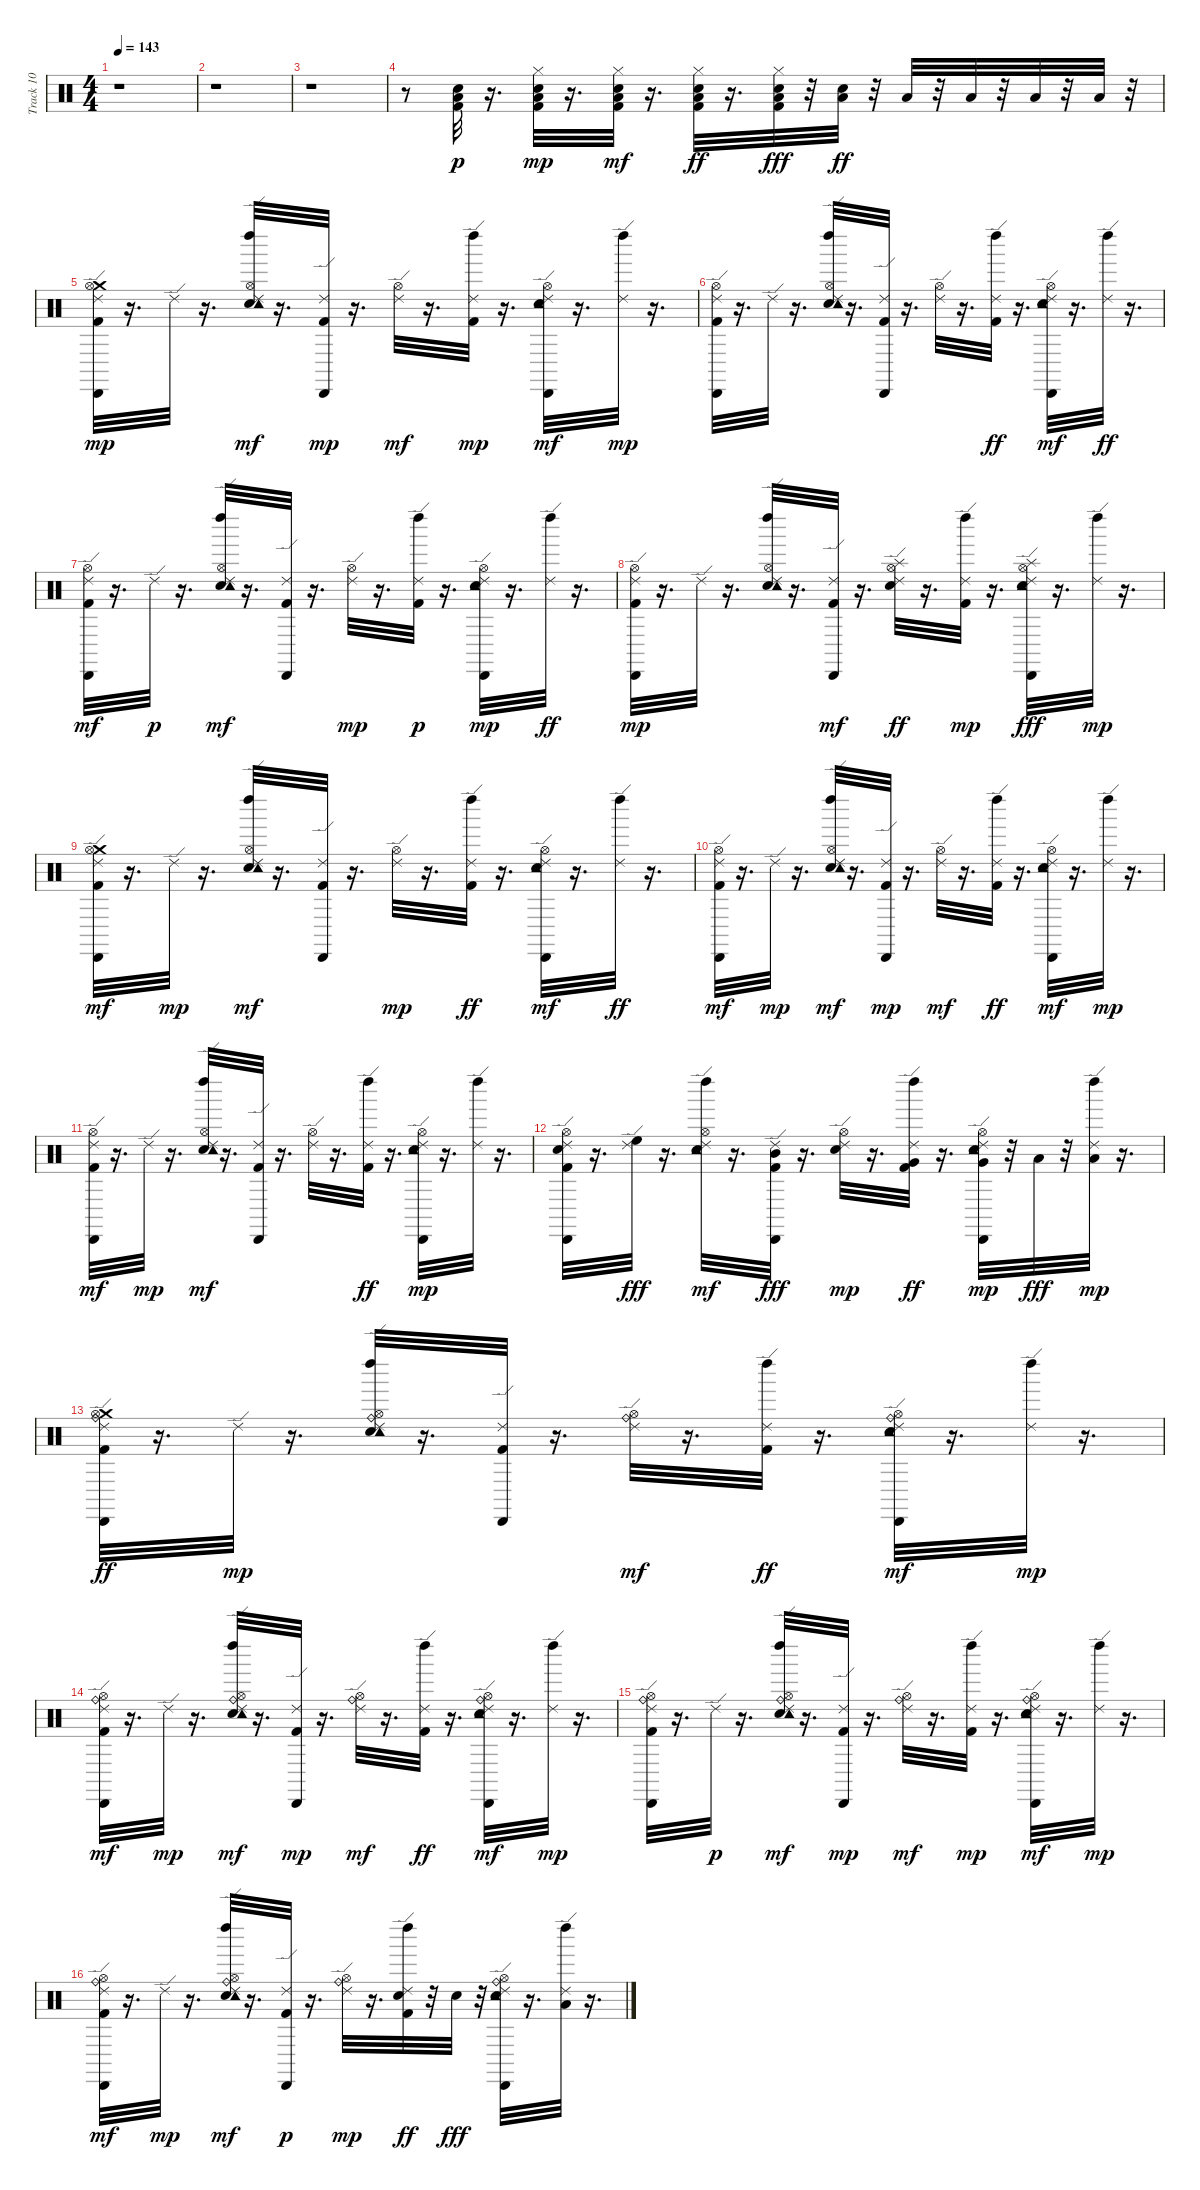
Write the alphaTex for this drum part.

\track ("Track 10" "Track 10") {instrument percussion}
\staff {score}
\articulation defaults
\ts (4 4)
\tempo 143
\clef neutral
\ks c
r.1{dy p} |
r.1 |
r.1 |
r.8 ("Snare (hit) 2" "Kick (hit) 2" "Low Floor Tom (hit)").32{balance 8} r.16{d} ("Snare (hit) 2" "Kick (hit) 2" "Low Floor Tom (hit)" "Hi-Hat (closed)").32{dy mp} r.16{d} ("Snare (hit) 2" "Kick (hit) 2" "Low Floor Tom (hit)" "Hi-Hat (closed)").32{dy mf} r.16{d} ("Snare (hit) 2" "Kick (hit) 2" "Low Floor Tom (hit)" "Hi-Hat (closed)").32{dy ff} r.16{d} ("Low Tom (hit)" "Snare (hit) 2" "Kick (hit) 2" "Hi-Hat (closed)").32{dy fff} r.32 ("Snare (hit) 2" "Low Tom (hit)").32{dy ff} r.32 "Low Tom (hit)".32 r.32 "Low Tom (hit)".32 r.32 "Low Floor Tom (hit)".32 r.32 "Low Floor Tom (hit)".32 r.32 |
("Kick (hit) 2" "Crash medium (hit)" "Ride (edge) 2" "Cabasa (hit)" "Hi-Hat (open)").32{dy mp} r.16{d} "Ride (edge) 2".32 r.16{d} ("Snare (hit) 2" "Ride (edge) 2" "Tambourine (hit)" "Left Maraca (hit)" "Hi-Hat (open)").32{dy mf} r.16{d} ("Kick (hit) 2" "Ride (edge) 2" "Cabasa (hit)").32{dy mp} r.16{d} ("Ride (edge) 2" "Hi-Hat (open)").32{dy mf} r.16{d} ("Kick (hit) 2" "Ride (edge) 2" "Left Maraca (hit)").32{dy mp} r.16{d} ("Snare (hit) 2" "Ride (edge) 2" "Tambourine (hit)" "Cabasa (hit)" "Hi-Hat (open)").32{dy mf} r.16{d} ("Ride (edge) 2" "Left Maraca (hit)").32{dy mp} r.16{d} |
("Kick (hit) 2" "Ride (edge) 2" "Cabasa (hit)" "Hi-Hat (open)").32 r.16{d} "Ride (edge) 2".32 r.16{d} ("Snare (hit) 2" "Ride (edge) 2" "Tambourine (hit)" "Left Maraca (hit)" "Hi-Hat (open)").32 r.16{d} ("Kick (hit) 2" "Ride (edge) 2" "Cabasa (hit)").32 r.16{d} ("Ride (edge) 2" "Hi-Hat (open)").32 r.16{d} ("Kick (hit) 2" "Ride (edge) 2" "Left Maraca (hit)").32{dy ff} r.16{d} ("Snare (hit) 2" "Ride (edge) 2" "Tambourine (hit)" "Cabasa (hit)" "Hi-Hat (open)").32{dy mf} r.16{d} ("Ride (edge) 2" "Left Maraca (hit)").32{dy ff} r.16{d} |
("Kick (hit) 2" "Ride (edge) 2" "Cabasa (hit)" "Hi-Hat (open)").32{dy mf} r.16{d} "Ride (edge) 2".32{dy p} r.16{d} ("Snare (hit) 2" "Ride (edge) 2" "Tambourine (hit)" "Left Maraca (hit)" "Hi-Hat (open)").32{dy mf} r.16{d} ("Kick (hit) 2" "Ride (edge) 2" "Cabasa (hit)").32 r.16{d} ("Ride (edge) 2" "Hi-Hat (open)").32{dy mp} r.16{d} ("Kick (hit) 2" "Ride (edge) 2" "Left Maraca (hit)").32{dy p} r.16{d} ("Snare (hit) 2" "Ride (edge) 2" "Tambourine (hit)" "Cabasa (hit)" "Hi-Hat (open)").32{dy mp} r.16{d} ("Ride (edge) 2" "Left Maraca (hit)").32{dy ff} r.16{d} |
("Kick (hit) 2" "Ride (edge) 2" "Cabasa (hit)" "Hi-Hat (open)").32{dy mp} r.16{d} "Ride (edge) 2".32 r.16{d} ("Snare (hit) 2" "Ride (edge) 2" "Tambourine (hit)" "Left Maraca (hit)" "Hi-Hat (open)").32 r.16{d} ("Kick (hit) 2" "Ride (edge) 2" "Cabasa (hit)").32{dy mf} r.16{d} ("Snare (hit) 2" "Ride (edge) 2" "Hi-Hat (open)" "Splash (hit)").32{dy ff} r.16{d} ("Kick (hit) 2" "Ride (edge) 2" "Left Maraca (hit)").32{dy mp} r.16{d} ("Snare (hit) 2" "Ride (edge) 2" "Tambourine (hit)" "Cabasa (hit)" "Hi-Hat (open)" "Splash (hit)").32{dy fff} r.16{d} ("Ride (edge) 2" "Left Maraca (hit)").32{dy mp} r.16{d} |
("Kick (hit) 2" "Ride (edge) 2" "Crash medium (hit)" "Cabasa (hit)" "Hi-Hat (open)").32{dy mf} r.16{d} "Ride (edge) 2".32{dy mp} r.16{d} ("Snare (hit) 2" "Ride (edge) 2" "Tambourine (hit)" "Left Maraca (hit)" "Hi-Hat (open)").32{dy mf} r.16{d} ("Kick (hit) 2" "Ride (edge) 2" "Cabasa (hit)").32 r.16{d} ("Ride (edge) 2" "Hi-Hat (open)").32{dy mp} r.16{d} ("Kick (hit) 2" "Ride (edge) 2" "Left Maraca (hit)").32{dy ff} r.16{d} ("Snare (hit) 2" "Ride (edge) 2" "Tambourine (hit)" "Cabasa (hit)" "Hi-Hat (open)").32{dy mf} r.16{d} ("Ride (edge) 2" "Left Maraca (hit)").32{dy ff} r.16{d} |
("Kick (hit) 2" "Ride (edge) 2" "Cabasa (hit)" "Hi-Hat (open)").32{dy mf} r.16{d} "Ride (edge) 2".32{dy mp} r.16{d} ("Snare (hit) 2" "Ride (edge) 2" "Tambourine (hit)" "Left Maraca (hit)" "Hi-Hat (open)").32{dy mf} r.16{d} ("Kick (hit) 2" "Ride (edge) 2" "Cabasa (hit)").32{dy mp} r.16{d} ("Ride (edge) 2" "Hi-Hat (open)").32{dy mf} r.16{d} ("Kick (hit) 2" "Ride (edge) 2" "Left Maraca (hit)").32{dy ff} r.16{d} ("Snare (hit) 2" "Ride (edge) 2" "Tambourine (hit)" "Cabasa (hit)" "Hi-Hat (open)").32{dy mf} r.16{d} ("Ride (edge) 2" "Left Maraca (hit)").32{dy mp} r.16{d} |
("Kick (hit) 2" "Ride (edge) 2" "Cabasa (hit)" "Hi-Hat (open)").32{dy mf} r.16{d} "Ride (edge) 2".32{dy mp} r.16{d} ("Snare (hit) 2" "Ride (edge) 2" "Tambourine (hit)" "Left Maraca (hit)" "Hi-Hat (open)").32{dy mf} r.16{d} ("Kick (hit) 2" "Ride (edge) 2" "Cabasa (hit)").32 r.16{d} ("Ride (edge) 2" "Hi-Hat (open)").32 r.16{d} ("Kick (hit) 2" "Ride (edge) 2" "Left Maraca (hit)").32{dy ff} r.16{d} ("Snare (hit) 2" "Ride (edge) 2" "Tambourine (hit)" "Cabasa (hit)" "Hi-Hat (open)").32{dy mp} r.16{d} ("Ride (edge) 2" "Left Maraca (hit)").32 r.16{d} |
("Kick (hit) 2" "Ride (edge) 2" "Snare (hit) 2" "Cabasa (hit)" "Hi-Hat (open)").32 r.16{d} ("Ride (edge) 2" "High Floor Tom (hit)").32{dy fff} r.16{d} ("Snare (hit) 2" "Ride (edge) 2" "Tambourine (hit)" "Left Maraca (hit)" "Hi-Hat (open)").32{dy mf} r.16{d} ("Kick (hit) 2" "Ride (edge) 2" "Cabasa (hit)" "Mid Tom (hit)").32{dy fff} r.16{d} ("Snare (hit) 2" "Ride (edge) 2" "Hi-Hat (open)").32{dy mp} r.16{d} ("Kick (hit) 2" "Ride (edge) 2" "Left Maraca (hit)" "Very Low Tom (hit)").32{dy ff} r.16{d} ("Snare (hit) 2" "Ride (edge) 2" "Tambourine (hit)" "Cabasa (hit)" "Very Low Tom (hit)" "Hi-Hat (open)").32{dy mp} r.32 "Low Floor Tom (hit)".32{dy fff} r.32 ("Ride (edge) 2" "Left Maraca (hit)" "Low Floor Tom (hit)").32{dy mp} r.16{d} |
("Kick (hit) 2" "Ride (edge) 2" "Crash medium (hit)" "Cabasa (hit)" "Hi-Hat (open)" "Ride (bell)").32{dy ff} r.16{d} "Ride (edge) 2".32{dy mp} r.16{d} ("Snare (hit) 2" "Ride (edge) 2" "Tambourine (hit)" "Left Maraca (hit)" "Hi-Hat (open)" "Ride (bell)").32 r.16{d} ("Kick (hit) 2" "Ride (edge) 2" "Cabasa (hit)").32 r.16{d} ("Ride (edge) 2" "Hi-Hat (open)" "Ride (bell)").32{dy mf} r.16{d} ("Kick (hit) 2" "Ride (edge) 2" "Left Maraca (hit)").32{dy ff} r.16{d} ("Snare (hit) 2" "Ride (edge) 2" "Tambourine (hit)" "Cabasa (hit)" "Hi-Hat (open)" "Ride (bell)").32{dy mf} r.16{d} ("Ride (edge) 2" "Left Maraca (hit)").32{dy mp} r.16{d} |
("Kick (hit) 2" "Ride (edge) 2" "Cabasa (hit)" "Hi-Hat (open)" "Ride (bell)").32{dy mf} r.16{d} "Ride (edge) 2".32{dy mp} r.16{d} ("Snare (hit) 2" "Ride (edge) 2" "Tambourine (hit)" "Left Maraca (hit)" "Hi-Hat (open)" "Ride (bell)").32{dy mf} r.16{d} ("Kick (hit) 2" "Ride (edge) 2" "Cabasa (hit)").32{dy mp} r.16{d} ("Ride (edge) 2" "Hi-Hat (open)" "Ride (bell)").32{dy mf} r.16{d} ("Kick (hit) 2" "Ride (edge) 2" "Left Maraca (hit)").32{dy ff} r.16{d} ("Snare (hit) 2" "Ride (edge) 2" "Tambourine (hit)" "Cabasa (hit)" "Hi-Hat (open)" "Ride (bell)").32{dy mf} r.16{d} ("Ride (edge) 2" "Left Maraca (hit)").32{dy mp} r.16{d} |
("Kick (hit) 2" "Ride (edge) 2" "Cabasa (hit)" "Hi-Hat (open)" "Ride (bell)").32 r.16{d} "Ride (edge) 2".32{dy p} r.16{d} ("Snare (hit) 2" "Ride (edge) 2" "Tambourine (hit)" "Left Maraca (hit)" "Hi-Hat (open)" "Ride (bell)").32{dy mf} r.16{d} ("Kick (hit) 2" "Ride (edge) 2" "Cabasa (hit)").32{dy mp} r.16{d} ("Ride (edge) 2" "Hi-Hat (open)" "Ride (bell)").32{dy mf} r.16{d} ("Kick (hit) 2" "Ride (edge) 2" "Left Maraca (hit)").32{dy mp} r.16{d} ("Snare (hit) 2" "Ride (edge) 2" "Tambourine (hit)" "Cabasa (hit)" "Hi-Hat (open)" "Ride (bell)").32{dy mf} r.16{d} ("Ride (edge) 2" "Left Maraca (hit)").32{dy mp} r.16{d} |
("Kick (hit) 2" "Ride (edge) 2" "Cabasa (hit)" "Hi-Hat (open)" "Ride (bell)").32{dy mf} r.16{d} "Ride (edge) 2".32{dy mp} r.16{d} ("Snare (hit) 2" "Ride (edge) 2" "Tambourine (hit)" "Left Maraca (hit)" "Hi-Hat (open)" "Ride (bell)").32{dy mf} r.16{d} ("Kick (hit) 2" "Ride (edge) 2" "Cabasa (hit)").32{dy p} r.16{d} ("Ride (edge) 2" "Hi-Hat (open)" "Ride (bell)").32{dy mp} r.16{d} ("Kick (hit) 2" "Ride (edge) 2" "Snare (hit) 2" "Left Maraca (hit)").32{dy ff} r.32 "Snare (hit) 2".32{dy fff} r.32 ("Ride (edge) 2" "Tambourine (hit)" "Cabasa (hit)" "Hi-Hat (open)" "Ride (bell)" "Snare (hit) 2").32 r.16{d} ("Ride (edge) 2" "Left Maraca (hit)" "Low Floor Tom (hit)").32 r.16{d}
